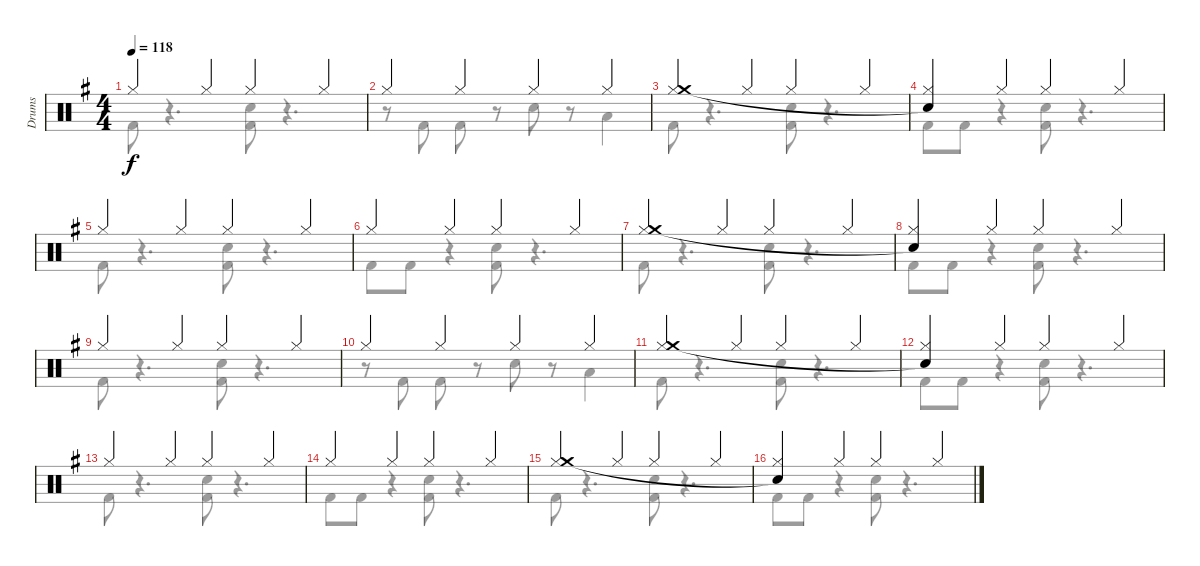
\track ("Drums" "Drums") {instrument percussion}
\staff {score}
\articulation defaults
\voice
\ts (4 4)
\tempo 118
\clef neutral
\ks eminor "Hi-Hat (closed)".4{dy f} "Hi-Hat (closed)".4 "Hi-Hat (closed)".4 "Hi-Hat (closed)".4
|
"Hi-Hat (closed)".4 "Hi-Hat (closed)".4 "Hi-Hat (closed)".4 "Hi-Hat (closed)".4 |
("Hi-Hat (closed)" "Crash medium (hit)").4 "Hi-Hat (closed)".4 "Hi-Hat (closed)".4 "Hi-Hat (closed)".4 |
("Hi-Hat (closed)" "Snare (hit)"{t}).4 "Hi-Hat (closed)".4 "Hi-Hat (closed)".4 "Hi-Hat (closed)".4 |
"Hi-Hat (closed)".4 "Hi-Hat (closed)".4 "Hi-Hat (closed)".4 "Hi-Hat (closed)".4 |
"Hi-Hat (closed)".4 "Hi-Hat (closed)".4 "Hi-Hat (closed)".4 "Hi-Hat (closed)".4 |
("Hi-Hat (closed)" "Crash medium (hit)").4 "Hi-Hat (closed)".4 "Hi-Hat (closed)".4 "Hi-Hat (closed)".4 |
("Hi-Hat (closed)" "Snare (hit)"{t}).4 "Hi-Hat (closed)".4 "Hi-Hat (closed)".4 "Hi-Hat (closed)".4 |
"Hi-Hat (closed)".4 "Hi-Hat (closed)".4 "Hi-Hat (closed)".4 "Hi-Hat (closed)".4 |
"Hi-Hat (closed)".4 "Hi-Hat (closed)".4 "Hi-Hat (closed)".4 "Hi-Hat (closed)".4 |
("Hi-Hat (closed)" "Crash medium (hit)").4 "Hi-Hat (closed)".4 "Hi-Hat (closed)".4 "Hi-Hat (closed)".4 |
("Hi-Hat (closed)" "Snare (hit)"{t}).4 "Hi-Hat (closed)".4 "Hi-Hat (closed)".4 "Hi-Hat (closed)".4 |
"Hi-Hat (closed)".4 "Hi-Hat (closed)".4 "Hi-Hat (closed)".4 "Hi-Hat (closed)".4 |
"Hi-Hat (closed)".4 "Hi-Hat (closed)".4 "Hi-Hat (closed)".4 "Hi-Hat (closed)".4 |
("Hi-Hat (closed)" "Crash medium (hit)").4 "Hi-Hat (closed)".4 "Hi-Hat (closed)".4 "Hi-Hat (closed)".4 |
("Hi-Hat (closed)" "Snare (hit)"{t}).4 "Hi-Hat (closed)".4 "Hi-Hat (closed)".4 "Hi-Hat (closed)".4
\voice
\clef neutral
\ottava regular
\simile none
\ks eminor "Kick (hit) 2".8{dy f}
r.4{d} ("Kick (hit) 2" "Electric Snare (hit)").8 r.4{d} |
r.8 "Kick (hit) 2".8 "Kick (hit) 2".8 r.8 "Electric Snare (hit)".8 r.8 "Low Tom (hit)".4 |
"Kick (hit) 2".8 r.4{d} ("Kick (hit) 2" "Electric Snare (hit)").8 r.4{d} |
"Kick (hit) 2".8 "Kick (hit) 2".8 r.4 ("Kick (hit) 2" "Electric Snare (hit)").8 r.4{d} |
"Kick (hit) 2".8 r.4{d} ("Kick (hit) 2" "Electric Snare (hit)").8 r.4{d} |
"Kick (hit) 2".8 "Kick (hit) 2".8 r.4 ("Kick (hit) 2" "Electric Snare (hit)").8 r.4{d} |
"Kick (hit) 2".8 r.4{d} ("Kick (hit) 2" "Electric Snare (hit)").8 r.4{d} |
"Kick (hit) 2".8 "Kick (hit) 2".8 r.4 ("Kick (hit) 2" "Electric Snare (hit)").8 r.4{d} |
"Kick (hit) 2".8 r.4{d} ("Kick (hit) 2" "Electric Snare (hit)").8 r.4{d} |
r.8 "Kick (hit) 2".8 "Kick (hit) 2".8 r.8 "Electric Snare (hit)".8 r.8 "Low Tom (hit)".4 |
"Kick (hit) 2".8 r.4{d} ("Kick (hit) 2" "Electric Snare (hit)").8 r.4{d} |
"Kick (hit) 2".8 "Kick (hit) 2".8 r.4 ("Kick (hit) 2" "Electric Snare (hit)").8 r.4{d} |
"Kick (hit) 2".8 r.4{d} ("Kick (hit) 2" "Electric Snare (hit)").8 r.4{d} |
"Kick (hit) 2".8 "Kick (hit) 2".8 r.4 ("Kick (hit) 2" "Electric Snare (hit)").8 r.4{d} |
"Kick (hit) 2".8 r.4{d} ("Kick (hit) 2" "Electric Snare (hit)").8 r.4{d} |
"Kick (hit) 2".8 "Kick (hit) 2".8 r.4 ("Kick (hit) 2" "Electric Snare (hit)").8 r.4{d}
